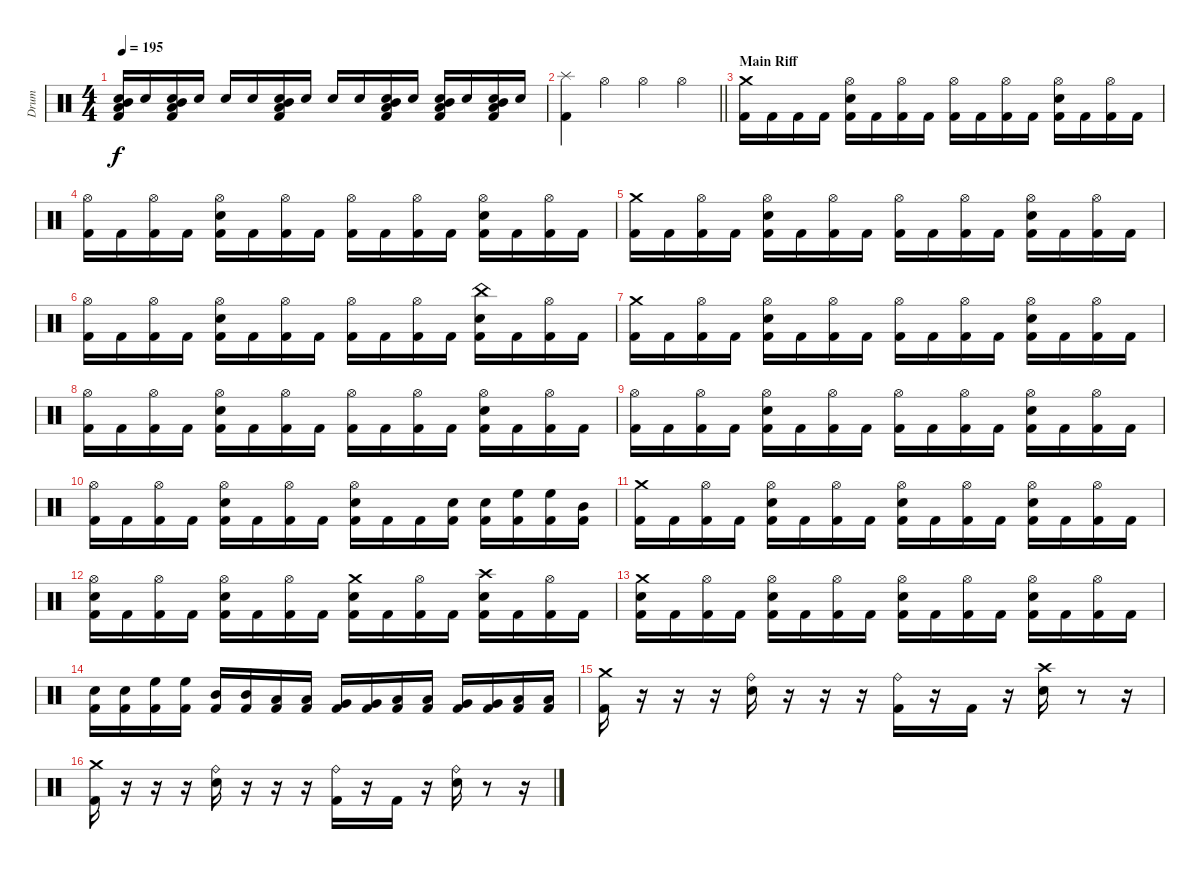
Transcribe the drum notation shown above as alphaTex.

\track ("Drum" "Drum") {instrument percussion}
\staff {score}
\articulation defaults
\ts (4 4)
\tempo 195
\clef neutral
\ks c
("Mid Tom (hit)" "Low Tom (hit)" "Snare (hit)" "Kick (hit) 2").16{dy f} "Snare (hit)".16 ("Mid Tom (hit)" "Low Tom (hit)" "Snare (hit)" "Kick (hit) 2").16 "Snare (hit)".16 "Snare (hit)".16 "Snare (hit)".16 ("Mid Tom (hit)" "Low Tom (hit)" "Snare (hit)" "Kick (hit) 2").16 "Snare (hit)".16 "Snare (hit)".16 "Snare (hit)".16 ("Mid Tom (hit)" "Low Tom (hit)" "Snare (hit)" "Kick (hit) 2").16 "Snare (hit)".16 ("Mid Tom (hit)" "Low Tom (hit)" "Snare (hit)" "Kick (hit) 2").16 "Snare (hit)".16 ("Mid Tom (hit)" "Low Tom (hit)" "Snare (hit)" "Kick (hit) 2").16 "Snare (hit)".16 |
\barLineRight lightlight
("Splash (hit)" "Kick (hit) 2").4 "Hi-Hat (open)".4 "Hi-Hat (open)".4 "Hi-Hat (open)".4 |
\section ("" "Main Riff")
("Crash medium (hit)" "Kick (hit) 2").16 "Kick (hit) 2".16 "Kick (hit) 2".16 "Kick (hit) 2".16 ("Hi-Hat (open)" "Snare (hit) 2" "Kick (hit) 2").16 "Kick (hit) 2".16 ("Hi-Hat (open)" "Kick (hit) 2").16 "Kick (hit) 2".16 ("Hi-Hat (open)" "Kick (hit) 2").16 "Kick (hit) 2".16 ("Hi-Hat (open)" "Kick (hit) 2").16 "Kick (hit) 2".16 ("Hi-Hat (open)" "Snare (hit) 2" "Kick (hit) 2").16 "Kick (hit) 2".16 ("Hi-Hat (open)" "Kick (hit) 2").16 "Kick (hit) 2".16 |
("Hi-Hat (open)" "Kick (hit) 2").16 "Kick (hit) 2".16 ("Hi-Hat (open)" "Kick (hit) 2").16 "Kick (hit) 2".16 ("Hi-Hat (open)" "Snare (hit) 2" "Kick (hit) 2").16 "Kick (hit) 2".16 ("Hi-Hat (open)" "Kick (hit) 2").16 "Kick (hit) 2".16 ("Hi-Hat (open)" "Kick (hit) 2").16 "Kick (hit) 2".16 ("Hi-Hat (open)" "Kick (hit) 2").16 "Kick (hit) 2".16 ("Hi-Hat (open)" "Snare (hit) 2" "Kick (hit) 2").16 "Kick (hit) 2".16 ("Hi-Hat (open)" "Kick (hit) 2").16 "Kick (hit) 2".16 |
("Crash medium (hit)" "Kick (hit) 2").16 "Kick (hit) 2".16 ("Hi-Hat (open)" "Kick (hit) 2").16 "Kick (hit) 2".16 ("Hi-Hat (open)" "Snare (hit) 2" "Kick (hit) 2").16 "Kick (hit) 2".16 ("Hi-Hat (open)" "Kick (hit) 2").16 "Kick (hit) 2".16 ("Hi-Hat (open)" "Kick (hit) 2").16 "Kick (hit) 2".16 ("Hi-Hat (open)" "Kick (hit) 2").16 "Kick (hit) 2".16 ("Hi-Hat (open)" "Snare (hit) 2" "Kick (hit) 2").16 "Kick (hit) 2".16 ("Hi-Hat (open)" "Kick (hit) 2").16 "Kick (hit) 2".16 |
("Hi-Hat (open)" "Kick (hit) 2").16 "Kick (hit) 2".16 ("Hi-Hat (open)" "Kick (hit) 2").16 "Kick (hit) 2".16 ("Hi-Hat (open)" "Snare (hit) 2" "Kick (hit) 2").16 "Kick (hit) 2".16 ("Hi-Hat (open)" "Kick (hit) 2").16 "Kick (hit) 2".16 ("Hi-Hat (open)" "Kick (hit) 2").16 "Kick (hit) 2".16 ("Hi-Hat (open)" "Kick (hit) 2").16 "Kick (hit) 2".16 ("China (hit)" "Snare (hit) 2" "Kick (hit) 2").16 "Kick (hit) 2".16 ("Hi-Hat (open)" "Kick (hit) 2").16 "Kick (hit) 2".16 |
("Crash medium (hit)" "Kick (hit) 2").16 "Kick (hit) 2".16 ("Hi-Hat (open)" "Kick (hit) 2").16 "Kick (hit) 2".16 ("Hi-Hat (open)" "Snare (hit) 2" "Kick (hit) 2").16 "Kick (hit) 2".16 ("Hi-Hat (open)" "Kick (hit) 2").16 "Kick (hit) 2".16 ("Hi-Hat (open)" "Kick (hit) 2").16 "Kick (hit) 2".16 ("Hi-Hat (open)" "Kick (hit) 2").16 "Kick (hit) 2".16 ("Hi-Hat (open)" "Snare (hit) 2" "Kick (hit) 2").16 "Kick (hit) 2".16 ("Hi-Hat (open)" "Kick (hit) 2").16 "Kick (hit) 2".16 |
("Hi-Hat (open)" "Kick (hit) 2").16 "Kick (hit) 2".16 ("Hi-Hat (open)" "Kick (hit) 2").16 "Kick (hit) 2".16 ("Hi-Hat (open)" "Snare (hit) 2" "Kick (hit) 2").16 "Kick (hit) 2".16 ("Hi-Hat (open)" "Kick (hit) 2").16 "Kick (hit) 2".16 ("Hi-Hat (open)" "Kick (hit) 2").16 "Kick (hit) 2".16 ("Hi-Hat (open)" "Kick (hit) 2").16 "Kick (hit) 2".16 ("Hi-Hat (open)" "Snare (hit) 2" "Kick (hit) 2").16 "Kick (hit) 2".16 ("Hi-Hat (open)" "Kick (hit) 2").16 "Kick (hit) 2".16 |
("Hi-Hat (open)" "Kick (hit) 2").16 "Kick (hit) 2".16 ("Hi-Hat (open)" "Kick (hit) 2").16 "Kick (hit) 2".16 ("Hi-Hat (open)" "Snare (hit) 2" "Kick (hit) 2").16 "Kick (hit) 2".16 ("Hi-Hat (open)" "Kick (hit) 2").16 "Kick (hit) 2".16 ("Hi-Hat (open)" "Kick (hit) 2").16 "Kick (hit) 2".16 ("Hi-Hat (open)" "Kick (hit) 2").16 "Kick (hit) 2".16 ("Hi-Hat (open)" "Snare (hit) 2" "Kick (hit) 2").16 "Kick (hit) 2".16 ("Hi-Hat (open)" "Kick (hit) 2").16 "Kick (hit) 2".16 |
("Hi-Hat (open)" "Kick (hit) 2").16 "Kick (hit) 2".16 ("Hi-Hat (open)" "Kick (hit) 2").16 "Kick (hit) 2".16 ("Hi-Hat (open)" "Snare (hit) 2" "Kick (hit) 2").16 "Kick (hit) 2".16 ("Hi-Hat (open)" "Kick (hit) 2").16 "Kick (hit) 2".16 ("Hi-Hat (open)" "Snare (hit) 2" "Kick (hit) 2").16 "Kick (hit) 2".16 "Kick (hit) 2".16 ("Snare (hit) 2" "Kick (hit) 2").16 ("Snare (hit) 2" "Kick (hit) 2").16 ("High Floor Tom (hit)" "Kick (hit) 2").16 ("High Floor Tom (hit)" "Kick (hit) 2").16 ("Mid Tom (hit)" "Kick (hit) 2").16 |
("Crash medium (hit)" "Kick (hit) 2").16 "Kick (hit) 2".16 ("Hi-Hat (open)" "Kick (hit) 2").16 "Kick (hit) 2".16 ("Hi-Hat (open)" "Snare (hit) 2" "Kick (hit) 2").16 "Kick (hit) 2".16 ("Hi-Hat (open)" "Kick (hit) 2").16 "Kick (hit) 2".16 ("Hi-Hat (open)" "Snare (hit) 2" "Kick (hit) 2").16 "Kick (hit) 2".16 ("Hi-Hat (open)" "Kick (hit) 2").16 "Kick (hit) 2".16 ("Hi-Hat (open)" "Snare (hit) 2" "Kick (hit) 2").16 "Kick (hit) 2".16 ("Hi-Hat (open)" "Kick (hit) 2").16 "Kick (hit) 2".16 |
("Hi-Hat (open)" "Snare (hit) 2" "Kick (hit) 2").16 "Kick (hit) 2".16 ("Hi-Hat (open)" "Kick (hit) 2").16 "Kick (hit) 2".16 ("Hi-Hat (open)" "Snare (hit) 2" "Kick (hit) 2").16 "Kick (hit) 2".16 ("Hi-Hat (open)" "Kick (hit) 2").16 "Kick (hit) 2".16 ("Crash medium (hit)" "Snare (hit) 2" "Kick (hit) 2").16 "Kick (hit) 2".16 ("Hi-Hat (open)" "Kick (hit) 2").16 "Kick (hit) 2".16 ("Crash high (hit)" "Snare (hit) 2" "Kick (hit) 2").16 "Kick (hit) 2".16 ("Hi-Hat (open)" "Kick (hit) 2").16 "Kick (hit) 2".16 |
("Crash medium (hit)" "Snare (hit) 2" "Kick (hit) 2").16 "Kick (hit) 2".16 ("Hi-Hat (open)" "Kick (hit) 2").16 "Kick (hit) 2".16 ("Hi-Hat (open)" "Snare (hit) 2" "Kick (hit) 2").16 "Kick (hit) 2".16 ("Hi-Hat (open)" "Kick (hit) 2").16 "Kick (hit) 2".16 ("Hi-Hat (open)" "Snare (hit) 2" "Kick (hit) 2").16 "Kick (hit) 2".16 ("Hi-Hat (open)" "Kick (hit) 2").16 "Kick (hit) 2".16 ("Hi-Hat (open)" "Snare (hit) 2" "Kick (hit) 2").16 "Kick (hit) 2".16 ("Hi-Hat (open)" "Kick (hit) 2").16 "Kick (hit) 2".16 |
("Snare (hit) 2" "Kick (hit) 2").16 ("Snare (hit) 2" "Kick (hit) 2").16 ("High Floor Tom (hit)" "Kick (hit) 2").16 ("High Floor Tom (hit)" "Kick (hit) 2").16 ("Mid Tom (hit)" "Kick (hit) 2").16 ("Mid Tom (hit)" "Kick (hit) 2").16 ("Low Tom (hit)" "Kick (hit) 2").16 ("Low Tom (hit)" "Kick (hit) 2").16 ("Very Low Tom (hit)" "Kick (hit) 2").16 ("Very Low Tom (hit)" "Kick (hit) 2").16 ("Low Floor Tom (hit)" "Kick (hit) 2").16 ("Low Floor Tom (hit)" "Kick (hit) 2").16 ("Very Low Tom (hit)" "Kick (hit) 2").16 ("Very Low Tom (hit)" "Kick (hit) 2").16 ("Low Floor Tom (hit)" "Kick (hit) 2").16 ("Low Floor Tom (hit)" "Kick (hit) 2").16 |
("Crash medium (hit)" "Kick (hit) 2").16 r.16 r.16 r.16 ("Ride (bell)" "Snare (hit) 2").16 r.16 r.16 r.16 ("Ride (bell)" "Kick (hit) 2").16 r.16 "Kick (hit) 2".16 r.16 ("Crash high (hit)" "Snare (hit) 2").16 r.8 r.16 |
("Crash medium (hit)" "Kick (hit) 2").16 r.16 r.16 r.16 ("Ride (bell)" "Snare (hit) 2").16 r.16 r.16 r.16 ("Ride (bell)" "Kick (hit) 2").16 r.16 "Kick (hit) 2".16 r.16 ("Ride (bell)" "Snare (hit) 2").16 r.8 r.16
